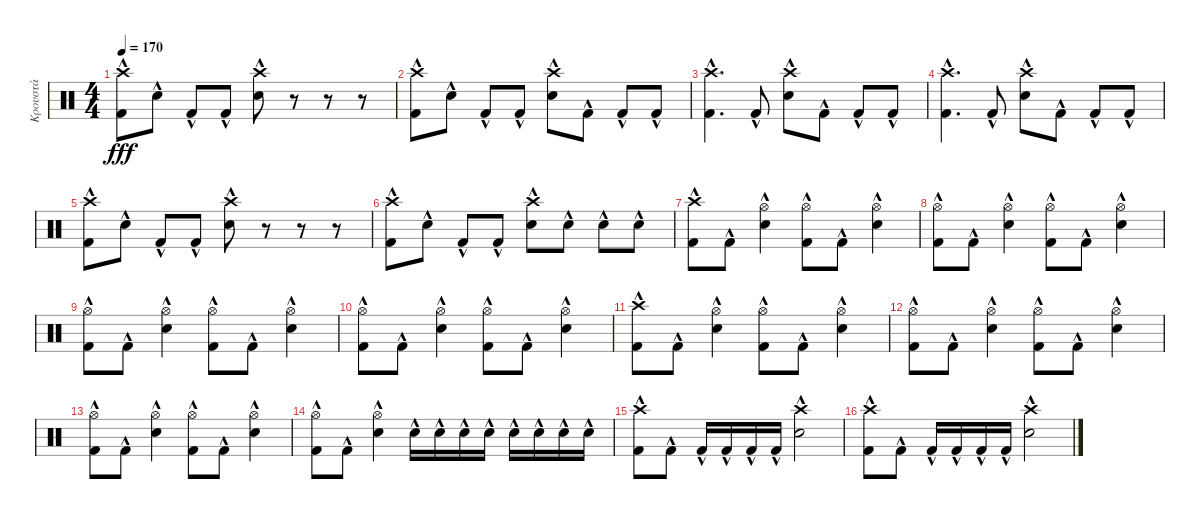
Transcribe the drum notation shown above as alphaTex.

\track ("Κρουστά" "Κρουστά") {instrument percussion}
\staff {score}
\articulation defaults
\ts (4 4)
\tempo 170
\clef neutral
\ks c
("Kick (hit) 2"{hac} "Crash high (hit)").8{dy fff} "Electric Snare (hit)"{hac}.8 "Kick (hit) 2"{hac}.8 "Kick (hit) 2"{hac}.8 ("Electric Snare (hit)"{hac} "Crash high (hit)").8 r.8 r.8 r.8 |
("Kick (hit) 2"{hac} "Crash high (hit)").8 "Electric Snare (hit)"{hac}.8 "Kick (hit) 2"{hac}.8 "Kick (hit) 2"{hac}.8 ("Electric Snare (hit)"{hac} "Crash high (hit)").8 "Kick (hit) 2"{hac}.8 "Kick (hit) 2"{hac}.8 "Kick (hit) 2"{hac}.8 |
("Kick (hit) 2"{hac} "Crash high (hit)").4{d} "Kick (hit) 2"{hac}.8 ("Electric Snare (hit)"{hac} "Crash high (hit)").8 "Kick (hit) 2"{hac}.8 "Kick (hit) 2"{hac}.8 "Kick (hit) 2"{hac}.8 |
("Kick (hit) 2"{hac} "Crash high (hit)").4{d} "Kick (hit) 2"{hac}.8 ("Electric Snare (hit)"{hac} "Crash high (hit)").8 "Kick (hit) 2"{hac}.8 "Kick (hit) 2"{hac}.8 "Kick (hit) 2"{hac}.8 |
("Kick (hit) 2"{hac} "Crash high (hit)").8 "Electric Snare (hit)"{hac}.8 "Kick (hit) 2"{hac}.8 "Kick (hit) 2"{hac}.8 ("Electric Snare (hit)"{hac} "Crash high (hit)").8 r.8 r.8 r.8 |
("Kick (hit) 2"{hac} "Crash high (hit)").8 "Electric Snare (hit)"{hac}.8 "Kick (hit) 2"{hac}.8 "Kick (hit) 2"{hac}.8 ("Electric Snare (hit)"{hac} "Crash high (hit)").8 "Electric Snare (hit)"{hac}.8 "Electric Snare (hit)"{hac}.8 "Electric Snare (hit)"{hac}.8 |
("Kick (hit) 2"{hac} "Crash high (hit)").8 "Kick (hit) 2"{hac}.8 ("Electric Snare (hit)"{hac} "Hi-Hat (open)").4 ("Kick (hit) 2"{hac} "Hi-Hat (open)").8 "Kick (hit) 2"{hac}.8 ("Electric Snare (hit)"{hac} "Hi-Hat (open)").4 |
("Kick (hit) 2"{hac} "Hi-Hat (open)").8 "Kick (hit) 2"{hac}.8 ("Electric Snare (hit)"{hac} "Hi-Hat (open)").4 ("Kick (hit) 2"{hac} "Hi-Hat (open)").8 "Kick (hit) 2"{hac}.8 ("Electric Snare (hit)"{hac} "Hi-Hat (open)").4 |
("Kick (hit) 2"{hac} "Hi-Hat (open)").8 "Kick (hit) 2"{hac}.8 ("Electric Snare (hit)"{hac} "Hi-Hat (open)").4 ("Kick (hit) 2"{hac} "Hi-Hat (open)").8 "Kick (hit) 2"{hac}.8 ("Electric Snare (hit)"{hac} "Hi-Hat (open)").4 |
("Kick (hit) 2"{hac} "Hi-Hat (open)").8 "Kick (hit) 2"{hac}.8 ("Electric Snare (hit)"{hac} "Hi-Hat (open)").4 ("Kick (hit) 2"{hac} "Hi-Hat (open)").8 "Kick (hit) 2"{hac}.8 ("Electric Snare (hit)"{hac} "Hi-Hat (open)").4 |
("Kick (hit) 2"{hac} "Crash high (hit)").8 "Kick (hit) 2"{hac}.8 ("Electric Snare (hit)"{hac} "Hi-Hat (open)").4 ("Kick (hit) 2"{hac} "Hi-Hat (open)").8 "Kick (hit) 2"{hac}.8 ("Electric Snare (hit)"{hac} "Hi-Hat (open)").4 |
("Kick (hit) 2"{hac} "Hi-Hat (open)").8 "Kick (hit) 2"{hac}.8 ("Electric Snare (hit)"{hac} "Hi-Hat (open)").4 ("Kick (hit) 2"{hac} "Hi-Hat (open)").8 "Kick (hit) 2"{hac}.8 ("Electric Snare (hit)"{hac} "Hi-Hat (open)").4 |
("Kick (hit) 2"{hac} "Hi-Hat (open)").8 "Kick (hit) 2"{hac}.8 ("Electric Snare (hit)"{hac} "Hi-Hat (open)").4 ("Kick (hit) 2"{hac} "Hi-Hat (open)").8 "Kick (hit) 2"{hac}.8 ("Electric Snare (hit)"{hac} "Hi-Hat (open)").4 |
("Kick (hit) 2"{hac} "Hi-Hat (open)").8 "Kick (hit) 2"{hac}.8 ("Electric Snare (hit)"{hac} "Hi-Hat (open)").4 "Electric Snare (hit)"{hac}.16 "Electric Snare (hit)"{hac}.16 "Electric Snare (hit)"{hac}.16 "Electric Snare (hit)"{hac}.16 "Electric Snare (hit)"{hac}.16 "Electric Snare (hit)"{hac}.16 "Electric Snare (hit)"{hac}.16 "Electric Snare (hit)"{hac}.16 |
("Kick (hit) 2"{hac} "Crash high (hit)").8 "Kick (hit) 2"{hac}.8 "Kick (hit) 2"{hac}.16 "Kick (hit) 2"{hac}.16 "Kick (hit) 2"{hac}.16 "Kick (hit) 2"{hac}.16 ("Electric Snare (hit)"{hac} "Crash high (hit)").2 |
("Kick (hit) 2"{hac} "Crash high (hit)").8 "Kick (hit) 2"{hac}.8 "Kick (hit) 2"{hac}.16 "Kick (hit) 2"{hac}.16 "Kick (hit) 2"{hac}.16 "Kick (hit) 2"{hac}.16 ("Electric Snare (hit)"{hac} "Crash high (hit)").2
